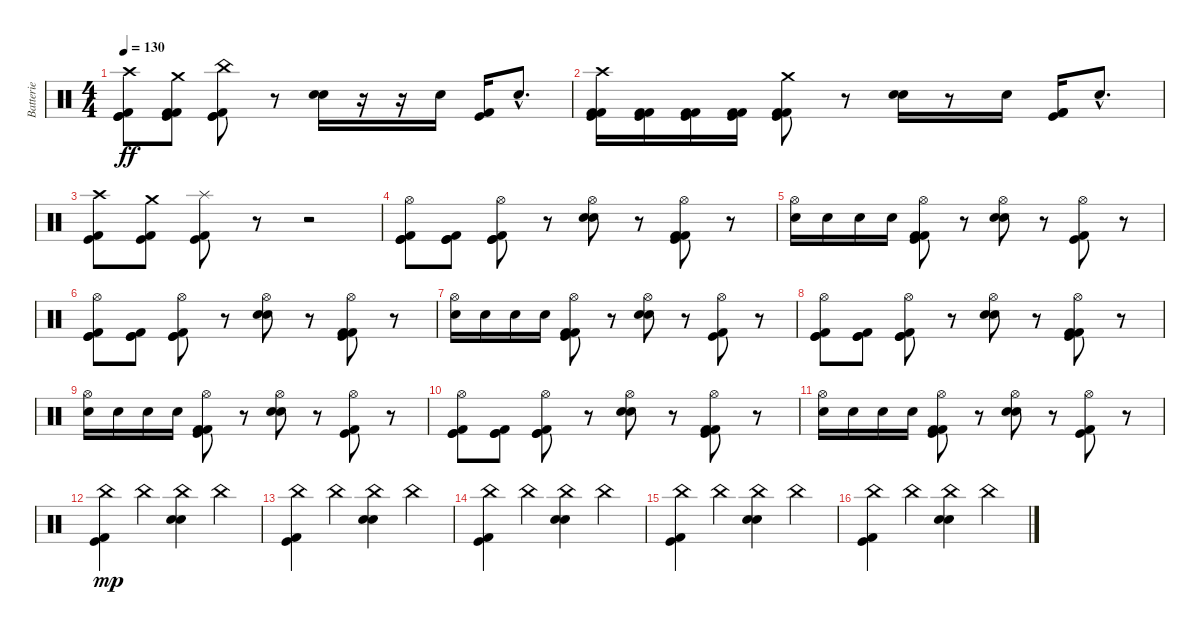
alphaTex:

\track ("Batterie" "Batterie") {instrument percussion}
\staff {score}
\articulation defaults
\ts (4 4)
\tempo 130
\clef neutral
\ks c
("Crash high (hit)" "Kick (hit)" "Kick (hit) 2" "Kick (hit)").8{dy ff} ("Crash medium (hit)" "Kick (hit) 2" "Kick (hit)" "Kick (hit) 2").8 ("China (hit)" "Kick (hit)" "Kick (hit) 2" "Kick (hit)").8 r.8 ("Electric Snare (hit)" "Electric Snare (hit)").16 r.16 r.16 "Electric Snare (hit)".16 ("Kick (hit) 2" "Kick (hit)").16 "Electric Snare (hit)"{hac}.8{d} |
("Crash high (hit)" "Kick (hit) 2" "Kick (hit)" "Kick (hit) 2").16 ("Kick (hit) 2" "Kick (hit) 2" "Kick (hit)").16 ("Kick (hit) 2" "Kick (hit)" "Kick (hit) 2").16 ("Kick (hit) 2" "Kick (hit) 2" "Kick (hit)").16 ("Crash medium (hit)" "Kick (hit) 2" "Kick (hit)" "Kick (hit) 2").8 r.8 ("Electric Snare (hit)" "Electric Snare (hit)").16 r.8 "Electric Snare (hit)".16 ("Kick (hit) 2" "Kick (hit)" "Kick (hit) 2").16 "Electric Snare (hit)"{hac}.8{d} |
("Crash high (hit)" "Kick (hit) 2" "Kick (hit)").8 ("Crash medium (hit)" "Kick (hit)" "Kick (hit) 2").8 ("Splash (hit)" "Kick (hit) 2" "Kick (hit)").8 r.8 r.2 |
("Hi-Hat (open)" "Kick (hit) 2" "Kick (hit)" "Kick (hit)").8 ("Kick (hit)" "Kick (hit) 2" "Kick (hit)").8 ("Hi-Hat (open)" "Kick (hit)" "Kick (hit) 2" "Kick (hit)").8 r.8 ("Hi-Hat (open)" "Electric Snare (hit)" "Electric Snare (hit)").8 r.8 ("Hi-Hat (open)" "Kick (hit) 2" "Kick (hit) 2" "Kick (hit)").8 r.8 |
("Hi-Hat (open)" "Electric Snare (hit)").16 "Electric Snare (hit)".16 "Electric Snare (hit)".16 "Electric Snare (hit)".16 ("Hi-Hat (open)" "Kick (hit) 2" "Kick (hit) 2" "Kick (hit)").8 r.8 ("Hi-Hat (open)" "Electric Snare (hit)" "Electric Snare (hit)").8 r.8 ("Hi-Hat (open)" "Kick (hit) 2" "Kick (hit)").8 r.8 |
("Hi-Hat (open)" "Kick (hit) 2" "Kick (hit)" "Kick (hit)").8 ("Kick (hit)" "Kick (hit) 2" "Kick (hit)").8 ("Hi-Hat (open)" "Kick (hit)" "Kick (hit) 2" "Kick (hit)").8 r.8 ("Hi-Hat (open)" "Electric Snare (hit)" "Electric Snare (hit)").8 r.8 ("Hi-Hat (open)" "Kick (hit) 2" "Kick (hit) 2" "Kick (hit)").8 r.8 |
("Hi-Hat (open)" "Electric Snare (hit)").16 "Electric Snare (hit)".16 "Electric Snare (hit)".16 "Electric Snare (hit)".16 ("Hi-Hat (open)" "Kick (hit) 2" "Kick (hit) 2" "Kick (hit)").8 r.8 ("Hi-Hat (open)" "Electric Snare (hit)" "Electric Snare (hit)").8 r.8 ("Hi-Hat (open)" "Kick (hit) 2" "Kick (hit)").8 r.8 |
("Hi-Hat (open)" "Kick (hit) 2" "Kick (hit)" "Kick (hit)").8 ("Kick (hit)" "Kick (hit) 2" "Kick (hit)").8 ("Hi-Hat (open)" "Kick (hit)" "Kick (hit) 2" "Kick (hit)").8 r.8 ("Hi-Hat (open)" "Electric Snare (hit)" "Electric Snare (hit)").8 r.8 ("Hi-Hat (open)" "Kick (hit) 2" "Kick (hit) 2" "Kick (hit)").8 r.8 |
("Hi-Hat (open)" "Electric Snare (hit)").16 "Electric Snare (hit)".16 "Electric Snare (hit)".16 "Electric Snare (hit)".16 ("Hi-Hat (open)" "Kick (hit) 2" "Kick (hit) 2" "Kick (hit)").8 r.8 ("Hi-Hat (open)" "Electric Snare (hit)" "Electric Snare (hit)").8 r.8 ("Hi-Hat (open)" "Kick (hit) 2" "Kick (hit)").8 r.8 |
("Hi-Hat (open)" "Kick (hit) 2" "Kick (hit)" "Kick (hit)").8 ("Kick (hit)" "Kick (hit) 2" "Kick (hit)").8 ("Hi-Hat (open)" "Kick (hit)" "Kick (hit) 2" "Kick (hit)").8 r.8 ("Hi-Hat (open)" "Electric Snare (hit)" "Electric Snare (hit)").8 r.8 ("Hi-Hat (open)" "Kick (hit) 2" "Kick (hit) 2" "Kick (hit)").8 r.8 |
("Hi-Hat (open)" "Electric Snare (hit)").16 "Electric Snare (hit)".16 "Electric Snare (hit)".16 "Electric Snare (hit)".16 ("Hi-Hat (open)" "Kick (hit) 2" "Kick (hit) 2" "Kick (hit)").8 r.8 ("Hi-Hat (open)" "Electric Snare (hit)" "Electric Snare (hit)").8 r.8 ("Hi-Hat (open)" "Kick (hit) 2" "Kick (hit)").8 r.8 |
("China (hit)" "Kick (hit) 2" "Kick (hit)").4{dy mp} "China (hit)".4 ("China (hit)" "Electric Snare (hit)" "Electric Snare (hit)").4 "China (hit)".4 |
("China (hit)" "Kick (hit) 2" "Kick (hit)").4 "China (hit)".4 ("China (hit)" "Electric Snare (hit)" "Electric Snare (hit)").4 "China (hit)".4 |
("China (hit)" "Kick (hit) 2" "Kick (hit)").4 "China (hit)".4 ("China (hit)" "Electric Snare (hit)" "Electric Snare (hit)").4 "China (hit)".4 |
("China (hit)" "Kick (hit) 2" "Kick (hit)").4 "China (hit)".4 ("China (hit)" "Electric Snare (hit)" "Electric Snare (hit)").4 "China (hit)".4 |
("China (hit)" "Kick (hit) 2" "Kick (hit)").4 "China (hit)".4 ("China (hit)" "Electric Snare (hit)" "Electric Snare (hit)").4 "China (hit)".4
